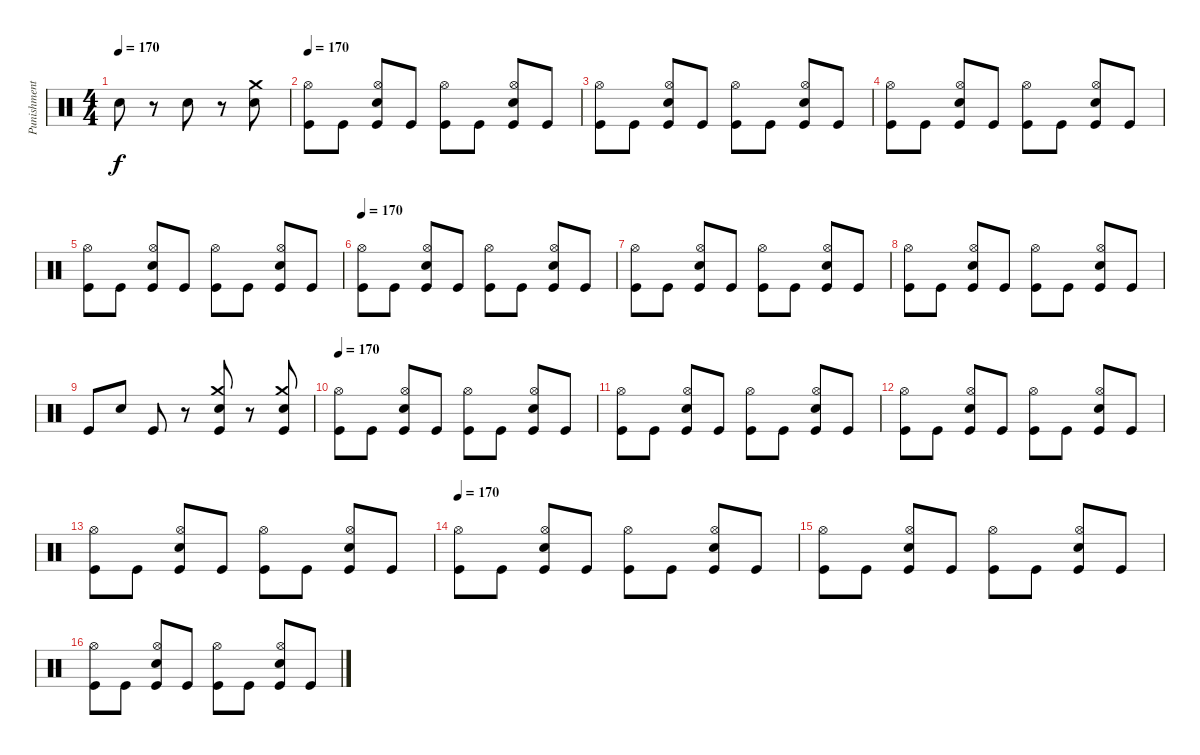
\track ("Punishment" "Punishment") {instrument percussion}
\staff {score}
\articulation defaults
\ts (4 4)
\tempo 170
\clef neutral
\ks c "Electric Snare (hit)".8{dy f}
r.8 "Electric Snare (hit)".8 r.8 ("Electric Snare (hit)" "Crash medium (hit)").8 |
\tempo 170
("Hi-Hat (open)" "Kick (hit)").8 "Kick (hit)".8 ("Hi-Hat (open)" "Electric Snare (hit)" "Kick (hit)").8 "Kick (hit)".8 ("Hi-Hat (open)" "Kick (hit)").8 "Kick (hit)".8 ("Hi-Hat (open)" "Electric Snare (hit)" "Kick (hit)").8 "Kick (hit)".8 |
("Hi-Hat (open)" "Kick (hit)").8 "Kick (hit)".8 ("Hi-Hat (open)" "Electric Snare (hit)" "Kick (hit)").8 "Kick (hit)".8 ("Hi-Hat (open)" "Kick (hit)").8 "Kick (hit)".8 ("Hi-Hat (open)" "Electric Snare (hit)" "Kick (hit)").8 "Kick (hit)".8 |
("Hi-Hat (open)" "Kick (hit)").8 "Kick (hit)".8 ("Hi-Hat (open)" "Electric Snare (hit)" "Kick (hit)").8 "Kick (hit)".8 ("Hi-Hat (open)" "Kick (hit)").8 "Kick (hit)".8 ("Hi-Hat (open)" "Electric Snare (hit)" "Kick (hit)").8 "Kick (hit)".8 |
("Hi-Hat (open)" "Kick (hit)").8 "Kick (hit)".8 ("Hi-Hat (open)" "Electric Snare (hit)" "Kick (hit)").8 "Kick (hit)".8 ("Hi-Hat (open)" "Kick (hit)").8 "Kick (hit)".8 ("Hi-Hat (open)" "Electric Snare (hit)" "Kick (hit)").8 "Kick (hit)".8 |
\tempo 170
("Hi-Hat (open)" "Kick (hit)").8 "Kick (hit)".8 ("Hi-Hat (open)" "Electric Snare (hit)" "Kick (hit)").8 "Kick (hit)".8 ("Hi-Hat (open)" "Kick (hit)").8 "Kick (hit)".8 ("Hi-Hat (open)" "Electric Snare (hit)" "Kick (hit)").8 "Kick (hit)".8 |
("Hi-Hat (open)" "Kick (hit)").8 "Kick (hit)".8 ("Hi-Hat (open)" "Electric Snare (hit)" "Kick (hit)").8 "Kick (hit)".8 ("Hi-Hat (open)" "Kick (hit)").8 "Kick (hit)".8 ("Hi-Hat (open)" "Electric Snare (hit)" "Kick (hit)").8 "Kick (hit)".8 |
("Hi-Hat (open)" "Kick (hit)").8 "Kick (hit)".8 ("Hi-Hat (open)" "Electric Snare (hit)" "Kick (hit)").8 "Kick (hit)".8 ("Hi-Hat (open)" "Kick (hit)").8 "Kick (hit)".8 ("Hi-Hat (open)" "Electric Snare (hit)" "Kick (hit)").8 "Kick (hit)".8 |
"Kick (hit)".8 "Electric Snare (hit)".8 "Kick (hit)".8 r.8 ("Crash medium (hit)" "Kick (hit)" "Electric Snare (hit)").8 r.8 ("Crash medium (hit)" "Kick (hit)" "Electric Snare (hit)").8 |
\tempo 170
("Hi-Hat (open)" "Kick (hit)").8 "Kick (hit)".8 ("Hi-Hat (open)" "Electric Snare (hit)" "Kick (hit)").8 "Kick (hit)".8 ("Hi-Hat (open)" "Kick (hit)").8 "Kick (hit)".8 ("Hi-Hat (open)" "Electric Snare (hit)" "Kick (hit)").8 "Kick (hit)".8 |
("Hi-Hat (open)" "Kick (hit)").8 "Kick (hit)".8 ("Hi-Hat (open)" "Electric Snare (hit)" "Kick (hit)").8 "Kick (hit)".8 ("Hi-Hat (open)" "Kick (hit)").8 "Kick (hit)".8 ("Hi-Hat (open)" "Electric Snare (hit)" "Kick (hit)").8 "Kick (hit)".8 |
("Hi-Hat (open)" "Kick (hit)").8 "Kick (hit)".8 ("Hi-Hat (open)" "Electric Snare (hit)" "Kick (hit)").8 "Kick (hit)".8 ("Hi-Hat (open)" "Kick (hit)").8 "Kick (hit)".8 ("Hi-Hat (open)" "Electric Snare (hit)" "Kick (hit)").8 "Kick (hit)".8 |
("Hi-Hat (open)" "Kick (hit)").8 "Kick (hit)".8 ("Hi-Hat (open)" "Electric Snare (hit)" "Kick (hit)").8 "Kick (hit)".8 ("Hi-Hat (open)" "Kick (hit)").8 "Kick (hit)".8 ("Hi-Hat (open)" "Electric Snare (hit)" "Kick (hit)").8 "Kick (hit)".8 |
\tempo 170
("Hi-Hat (open)" "Kick (hit)").8 "Kick (hit)".8 ("Hi-Hat (open)" "Electric Snare (hit)" "Kick (hit)").8 "Kick (hit)".8 ("Hi-Hat (open)" "Kick (hit)").8 "Kick (hit)".8 ("Hi-Hat (open)" "Electric Snare (hit)" "Kick (hit)").8 "Kick (hit)".8 |
("Hi-Hat (open)" "Kick (hit)").8 "Kick (hit)".8 ("Hi-Hat (open)" "Electric Snare (hit)" "Kick (hit)").8 "Kick (hit)".8 ("Hi-Hat (open)" "Kick (hit)").8 "Kick (hit)".8 ("Hi-Hat (open)" "Electric Snare (hit)" "Kick (hit)").8 "Kick (hit)".8 |
("Hi-Hat (open)" "Kick (hit)").8 "Kick (hit)".8 ("Hi-Hat (open)" "Electric Snare (hit)" "Kick (hit)").8 "Kick (hit)".8 ("Hi-Hat (open)" "Kick (hit)").8 "Kick (hit)".8 ("Hi-Hat (open)" "Electric Snare (hit)" "Kick (hit)").8 "Kick (hit)".8
